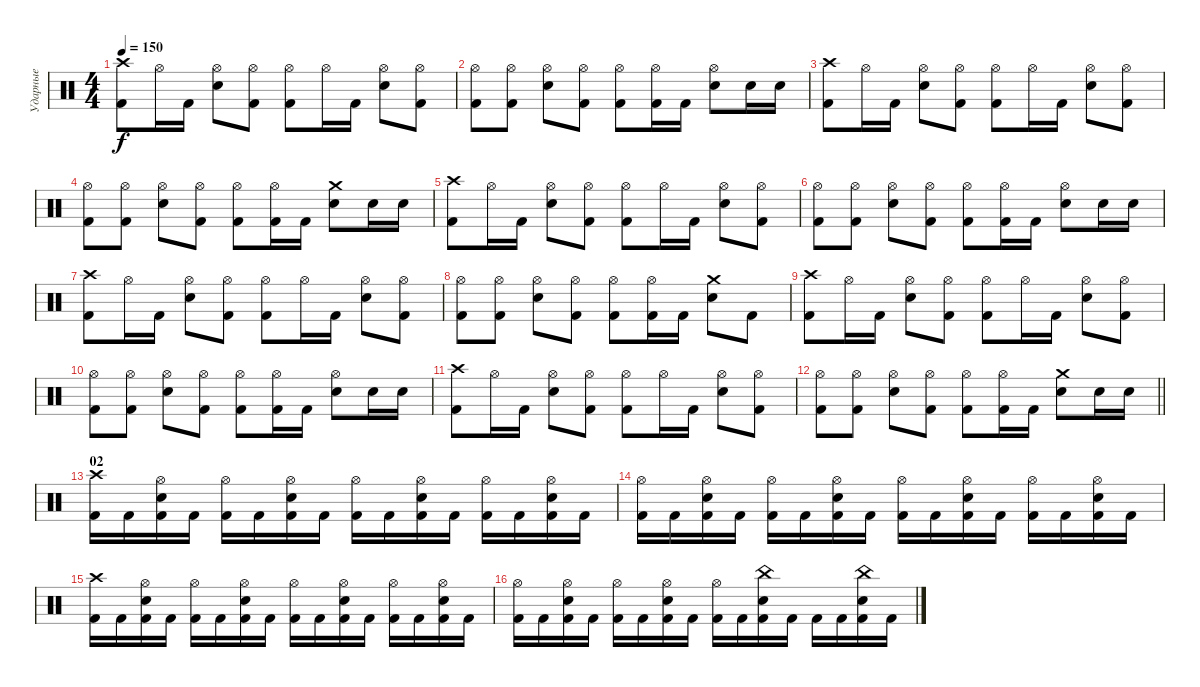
\track ("Ударные" "Ударные") {instrument percussion}
\staff {score}
\articulation defaults
\ts (4 4)
\tempo 150
\clef neutral
\ks c
("Crash high (hit)" "Kick (hit) 2").8{dy f} "Hi-Hat (open)".16 "Kick (hit) 2".16 ("Hi-Hat (open)" "Electric Snare (hit)").8 ("Hi-Hat (open)" "Kick (hit) 2").8 ("Hi-Hat (open)" "Kick (hit) 2").8 "Hi-Hat (open)".16 "Kick (hit) 2".16 ("Hi-Hat (open)" "Electric Snare (hit)").8 ("Hi-Hat (open)" "Kick (hit) 2").8 |
("Hi-Hat (open)" "Kick (hit) 2").8 ("Hi-Hat (open)" "Kick (hit) 2").8 ("Hi-Hat (open)" "Electric Snare (hit)").8 ("Hi-Hat (open)" "Kick (hit) 2").8 ("Hi-Hat (open)" "Kick (hit) 2").8 ("Hi-Hat (open)" "Kick (hit) 2").16 "Kick (hit) 2".16 ("Hi-Hat (open)" "Electric Snare (hit)").8 "Electric Snare (hit)".16 "Electric Snare (hit)".16 |
("Crash high (hit)" "Kick (hit) 2").8 "Hi-Hat (open)".16 "Kick (hit) 2".16 ("Hi-Hat (open)" "Electric Snare (hit)").8 ("Hi-Hat (open)" "Kick (hit) 2").8 ("Hi-Hat (open)" "Kick (hit) 2").8 "Hi-Hat (open)".16 "Kick (hit) 2".16 ("Hi-Hat (open)" "Electric Snare (hit)").8 ("Hi-Hat (open)" "Kick (hit) 2").8 |
("Hi-Hat (open)" "Kick (hit) 2").8 ("Hi-Hat (open)" "Kick (hit) 2").8 ("Hi-Hat (open)" "Electric Snare (hit)").8 ("Hi-Hat (open)" "Kick (hit) 2").8 ("Hi-Hat (open)" "Kick (hit) 2").8 ("Hi-Hat (open)" "Kick (hit) 2").16 "Kick (hit) 2".16 ("Crash medium (hit)" "Electric Snare (hit)").8 "Electric Snare (hit)".16 "Electric Snare (hit)".16 |
("Crash high (hit)" "Kick (hit) 2").8 "Hi-Hat (open)".16 "Kick (hit) 2".16 ("Hi-Hat (open)" "Electric Snare (hit)").8 ("Hi-Hat (open)" "Kick (hit) 2").8 ("Hi-Hat (open)" "Kick (hit) 2").8 "Hi-Hat (open)".16 "Kick (hit) 2".16 ("Hi-Hat (open)" "Electric Snare (hit)").8 ("Hi-Hat (open)" "Kick (hit) 2").8 |
("Hi-Hat (open)" "Kick (hit) 2").8 ("Hi-Hat (open)" "Kick (hit) 2").8 ("Hi-Hat (open)" "Electric Snare (hit)").8 ("Hi-Hat (open)" "Kick (hit) 2").8 ("Hi-Hat (open)" "Kick (hit) 2").8 ("Hi-Hat (open)" "Kick (hit) 2").16 "Kick (hit) 2".16 ("Hi-Hat (open)" "Electric Snare (hit)").8 "Electric Snare (hit)".16 "Electric Snare (hit)".16 |
("Crash high (hit)" "Kick (hit) 2").8 "Hi-Hat (open)".16 "Kick (hit) 2".16 ("Hi-Hat (open)" "Electric Snare (hit)").8 ("Hi-Hat (open)" "Kick (hit) 2").8 ("Hi-Hat (open)" "Kick (hit) 2").8 "Hi-Hat (open)".16 "Kick (hit) 2".16 ("Hi-Hat (open)" "Electric Snare (hit)").8 ("Hi-Hat (open)" "Kick (hit) 2").8 |
("Hi-Hat (open)" "Kick (hit) 2").8 ("Hi-Hat (open)" "Kick (hit) 2").8 ("Hi-Hat (open)" "Electric Snare (hit)").8 ("Hi-Hat (open)" "Kick (hit) 2").8 ("Hi-Hat (open)" "Kick (hit) 2").8 ("Hi-Hat (open)" "Kick (hit) 2").16 "Kick (hit) 2".16 ("Crash medium (hit)" "Electric Snare (hit)").8 "Kick (hit) 2".8 |
("Crash high (hit)" "Kick (hit) 2").8 "Hi-Hat (open)".16 "Kick (hit) 2".16 ("Hi-Hat (open)" "Electric Snare (hit)").8 ("Hi-Hat (open)" "Kick (hit) 2").8 ("Hi-Hat (open)" "Kick (hit) 2").8 "Hi-Hat (open)".16 "Kick (hit) 2".16 ("Hi-Hat (open)" "Electric Snare (hit)").8 ("Hi-Hat (open)" "Kick (hit) 2").8 |
("Hi-Hat (open)" "Kick (hit) 2").8 ("Hi-Hat (open)" "Kick (hit) 2").8 ("Hi-Hat (open)" "Electric Snare (hit)").8 ("Hi-Hat (open)" "Kick (hit) 2").8 ("Hi-Hat (open)" "Kick (hit) 2").8 ("Hi-Hat (open)" "Kick (hit) 2").16 "Kick (hit) 2".16 ("Hi-Hat (open)" "Electric Snare (hit)").8 "Electric Snare (hit)".16 "Electric Snare (hit)".16 |
("Crash high (hit)" "Kick (hit) 2").8 "Hi-Hat (open)".16 "Kick (hit) 2".16 ("Hi-Hat (open)" "Electric Snare (hit)").8 ("Hi-Hat (open)" "Kick (hit) 2").8 ("Hi-Hat (open)" "Kick (hit) 2").8 "Hi-Hat (open)".16 "Kick (hit) 2".16 ("Hi-Hat (open)" "Electric Snare (hit)").8 ("Hi-Hat (open)" "Kick (hit) 2").8 |
\barLineRight lightlight
("Hi-Hat (open)" "Kick (hit) 2").8 ("Hi-Hat (open)" "Kick (hit) 2").8 ("Hi-Hat (open)" "Electric Snare (hit)").8 ("Hi-Hat (open)" "Kick (hit) 2").8 ("Hi-Hat (open)" "Kick (hit) 2").8 ("Hi-Hat (open)" "Kick (hit) 2").16 "Kick (hit) 2".16 ("Crash medium (hit)" "Electric Snare (hit)").8 "Electric Snare (hit)".16 "Electric Snare (hit)".16 |
\section ("" "02")
("Crash high (hit)" "Kick (hit) 2").16 "Kick (hit) 2".16 ("Hi-Hat (open)" "Electric Snare (hit)" "Kick (hit) 2").16 "Kick (hit) 2".16 ("Hi-Hat (open)" "Kick (hit) 2").16 "Kick (hit) 2".16 ("Hi-Hat (open)" "Electric Snare (hit)" "Kick (hit) 2").16 "Kick (hit) 2".16 ("Hi-Hat (open)" "Kick (hit) 2").16 "Kick (hit) 2".16 ("Hi-Hat (open)" "Electric Snare (hit)" "Kick (hit) 2").16 "Kick (hit) 2".16 ("Hi-Hat (open)" "Kick (hit) 2").16 "Kick (hit) 2".16 ("Hi-Hat (open)" "Electric Snare (hit)" "Kick (hit) 2").16 "Kick (hit) 2".16 |
("Hi-Hat (open)" "Kick (hit) 2").16 "Kick (hit) 2".16 ("Hi-Hat (open)" "Electric Snare (hit)" "Kick (hit) 2").16 "Kick (hit) 2".16 ("Hi-Hat (open)" "Kick (hit) 2").16 "Kick (hit) 2".16 ("Hi-Hat (open)" "Electric Snare (hit)" "Kick (hit) 2").16 "Kick (hit) 2".16 ("Hi-Hat (open)" "Kick (hit) 2").16 "Kick (hit) 2".16 ("Hi-Hat (open)" "Electric Snare (hit)" "Kick (hit) 2").16 "Kick (hit) 2".16 ("Hi-Hat (open)" "Kick (hit) 2").16 "Kick (hit) 2".16 ("Hi-Hat (open)" "Electric Snare (hit)" "Kick (hit) 2").16 "Kick (hit) 2".16 |
("Crash high (hit)" "Kick (hit) 2").16 "Kick (hit) 2".16 ("Hi-Hat (open)" "Electric Snare (hit)" "Kick (hit) 2").16 "Kick (hit) 2".16 ("Hi-Hat (open)" "Kick (hit) 2").16 "Kick (hit) 2".16 ("Hi-Hat (open)" "Electric Snare (hit)" "Kick (hit) 2").16 "Kick (hit) 2".16 ("Hi-Hat (open)" "Kick (hit) 2").16 "Kick (hit) 2".16 ("Hi-Hat (open)" "Electric Snare (hit)" "Kick (hit) 2").16 "Kick (hit) 2".16 ("Hi-Hat (open)" "Kick (hit) 2").16 "Kick (hit) 2".16 ("Hi-Hat (open)" "Electric Snare (hit)" "Kick (hit) 2").16 "Kick (hit) 2".16 |
("Hi-Hat (open)" "Kick (hit) 2").16 "Kick (hit) 2".16 ("Hi-Hat (open)" "Electric Snare (hit)" "Kick (hit) 2").16 "Kick (hit) 2".16 ("Hi-Hat (open)" "Kick (hit) 2").16 "Kick (hit) 2".16 ("Hi-Hat (open)" "Electric Snare (hit)" "Kick (hit) 2").16 "Kick (hit) 2".16 ("Hi-Hat (open)" "Kick (hit) 2").16 "Kick (hit) 2".16 ("China (hit)" "Electric Snare (hit)" "Kick (hit) 2").16 "Kick (hit) 2".16 "Kick (hit) 2".16 "Kick (hit) 2".16 ("China (hit)" "Electric Snare (hit)" "Kick (hit) 2").16 "Kick (hit) 2".16
